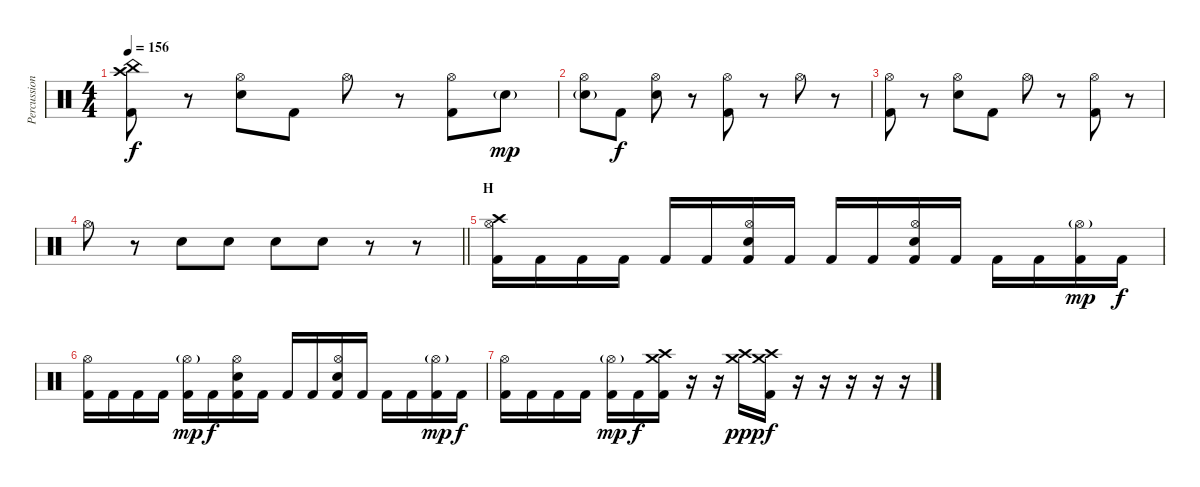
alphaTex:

\track ("Percussion" "Percussion") {instrument percussion}
\staff {score}
\articulation defaults
\ts (4 4)
\tempo 156
\clef neutral
\ks c
("Crash high (hit)" "China (hit)" "Kick (hit) 2").8{dy f} r.8 ("Hi-Hat (open)" "Electric Snare (hit)").8 "Kick (hit) 2".8 "Hi-Hat (open)".8 r.8 ("Hi-Hat (open)" "Kick (hit) 2").8 "Electric Snare (hit)"{g}.8{dy mp} |
("Hi-Hat (open)" "Electric Snare (hit)"{g}).8 "Kick (hit) 2".8{dy f} ("Hi-Hat (open)" "Electric Snare (hit)").8 r.8 ("Hi-Hat (open)" "Kick (hit) 2").8 r.8 "Hi-Hat (open)".8 r.8 |
("Hi-Hat (open)" "Kick (hit) 2").8 r.8 ("Hi-Hat (open)" "Electric Snare (hit)").8 "Kick (hit) 2".8 "Hi-Hat (open)".8 r.8 ("Hi-Hat (open)" "Kick (hit) 2").8 r.8 |
\barLineRight lightlight "Hi-Hat (open)".8
r.8 "Electric Snare (hit)".8 "Electric Snare (hit)".8 "Electric Snare (hit)".8 "Electric Snare (hit)".8 r.8 r.8 |
\section ("" "H")
("Crash high (hit)" "Hi-Hat (open)" "Kick (hit) 2").16 "Kick (hit) 2".16 "Kick (hit) 2".16 "Kick (hit) 2".16 "Kick (hit) 2".16 "Kick (hit) 2".16 ("Hi-Hat (open)" "Electric Snare (hit)" "Kick (hit) 2").16 "Kick (hit) 2".16 "Kick (hit) 2".16 "Kick (hit) 2".16 ("Hi-Hat (open)" "Electric Snare (hit)" "Kick (hit) 2").16 "Kick (hit) 2".16 "Kick (hit) 2".16 "Kick (hit) 2".16 ("Hi-Hat (open)"{g} "Kick (hit) 2").16{dy mp} "Kick (hit) 2".16{dy f} |
("Hi-Hat (open)" "Kick (hit) 2").16 "Kick (hit) 2".16 "Kick (hit) 2".16 "Kick (hit) 2".16 ("Hi-Hat (open)"{g} "Kick (hit) 2").16{dy mp} "Kick (hit) 2".16{dy f} ("Hi-Hat (open)" "Electric Snare (hit)" "Kick (hit) 2").16 "Kick (hit) 2".16 "Kick (hit) 2".16 "Kick (hit) 2".16 ("Hi-Hat (open)" "Electric Snare (hit)" "Kick (hit) 2").16 "Kick (hit) 2".16 "Kick (hit) 2".16 "Kick (hit) 2".16 ("Hi-Hat (open)"{g} "Kick (hit) 2").16{dy mp} "Kick (hit) 2".16{dy f} |
("Hi-Hat (open)" "Kick (hit) 2").16 "Kick (hit) 2".16 "Kick (hit) 2".16 "Kick (hit) 2".16 ("Hi-Hat (open)"{g} "Kick (hit) 2").16{dy mp} "Kick (hit) 2".16{dy f} ("Crash medium (hit)" "Crash high (hit)" "Kick (hit) 2").16 r.16 r.16 ("Crash medium (hit)" "Crash high (hit)").16{dy ppp} ("Crash medium (hit)" "Crash high (hit)" "Kick (hit) 2").16{dy f} r.16 r.16 r.16 r.16 r.16
